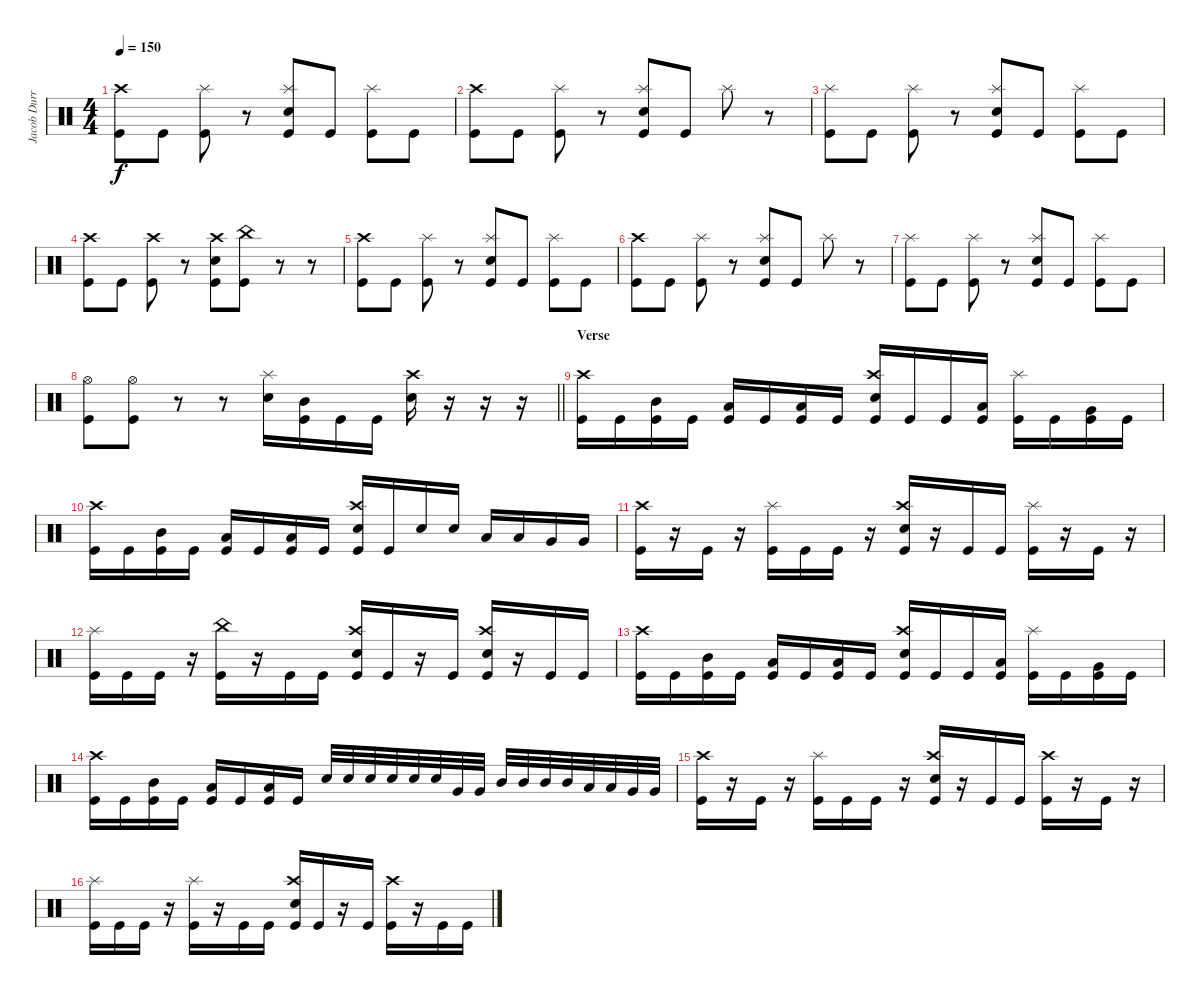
\track ("Jacob Durret" "Jacob Durr") {instrument percussion}
\staff {score}
\articulation defaults
\ts (4 4)
\tempo 150
\clef neutral
\ks c
("Kick (hit)" "Crash high (hit)").8{dy f} "Kick (hit)".8 ("Kick (hit)" "Splash (hit)").8 r.8 ("Kick (hit)" "Splash (hit)" "Snare (hit) 2").8 "Kick (hit)".8 ("Kick (hit)" "Splash (hit)").8 "Kick (hit)".8 |
("Kick (hit)" "Crash high (hit)").8 "Kick (hit)".8 ("Kick (hit)" "Splash (hit)").8 r.8 ("Kick (hit)" "Splash (hit)" "Snare (hit) 2").8 "Kick (hit)".8 "Splash (hit)".8 r.8 |
("Kick (hit)" "Splash (hit)").8 "Kick (hit)".8 ("Kick (hit)" "Splash (hit)").8 r.8 ("Kick (hit)" "Splash (hit)" "Snare (hit) 2").8 "Kick (hit)".8 ("Kick (hit)" "Splash (hit)").8 "Kick (hit)".8 |
("Kick (hit)" "Crash high (hit)").8 "Kick (hit)".8 ("Kick (hit)" "Crash high (hit)").8 r.8 ("Kick (hit)" "Crash high (hit)" "Snare (hit) 2").8 ("Kick (hit)" "China (hit)").8 r.8 r.8 |
("Kick (hit)" "Crash high (hit)").8 "Kick (hit)".8 ("Kick (hit)" "Splash (hit)").8 r.8 ("Kick (hit)" "Splash (hit)" "Snare (hit) 2").8 "Kick (hit)".8 ("Kick (hit)" "Splash (hit)").8 "Kick (hit)".8 |
("Kick (hit)" "Crash high (hit)").8 "Kick (hit)".8 ("Kick (hit)" "Splash (hit)").8 r.8 ("Kick (hit)" "Splash (hit)" "Snare (hit) 2").8 "Kick (hit)".8 "Splash (hit)".8 r.8 |
("Kick (hit)" "Splash (hit)").8 "Kick (hit)".8 ("Kick (hit)" "Splash (hit)").8 r.8 ("Kick (hit)" "Splash (hit)" "Snare (hit) 2").8 "Kick (hit)".8 ("Kick (hit)" "Splash (hit)").8 "Kick (hit)".8 |
\barLineRight lightlight
("Kick (hit)" "Hi-Hat (open)").8 ("Kick (hit)" "Hi-Hat (open)").8 r.8 r.8 ("Splash (hit)" "Snare (hit) 2").16 ("Kick (hit)" "Mid Tom (hit)").16 "Kick (hit)".16 "Kick (hit)".16 ("Snare (hit) 2" "Crash high (hit)").16 r.16 r.16 r.16 |
\section ("" "Verse")
("Kick (hit)" "Crash high (hit)").16 "Kick (hit)".16 ("Kick (hit)" "Mid Tom (hit)").16 "Kick (hit)".16 ("Kick (hit)" "Low Tom (hit)").16 "Kick (hit)".16 ("Kick (hit)" "Low Tom (hit)").16 "Kick (hit)".16 ("Kick (hit)" "Crash high (hit)" "Snare (hit) 2").16 "Kick (hit)".16 "Kick (hit)".16 ("Kick (hit)" "Low Tom (hit)").16 ("Kick (hit)" "Splash (hit)").16 "Kick (hit)".16 ("Kick (hit)" "Very Low Tom (hit)").16 "Kick (hit)".16 |
("Kick (hit)" "Crash high (hit)").16 "Kick (hit)".16 ("Kick (hit)" "Mid Tom (hit)").16 "Kick (hit)".16 ("Kick (hit)" "Low Tom (hit)").16 "Kick (hit)".16 ("Kick (hit)" "Low Tom (hit)").16 "Kick (hit)".16 ("Kick (hit)" "Crash high (hit)" "Snare (hit) 2").16 "Kick (hit)".16 "Snare (hit) 2".16 "Snare (hit) 2".16 "Low Tom (hit)".16 "Low Tom (hit)".16 "Very Low Tom (hit)".16 "Very Low Tom (hit)".16 |
("Kick (hit)" "Crash high (hit)").16 r.16 "Kick (hit)".16 r.16 ("Kick (hit)" "Splash (hit)").16 "Kick (hit)".16 "Kick (hit)".16 r.16 ("Kick (hit)" "Crash high (hit)" "Snare (hit) 2").16 r.16 "Kick (hit)".16 "Kick (hit)".16 ("Kick (hit)" "Splash (hit)").16 r.16 "Kick (hit)".16 r.16 |
("Kick (hit)" "Splash (hit)").16 "Kick (hit)".16 "Kick (hit)".16 r.16 ("Kick (hit)" "China (hit)").16 r.16 "Kick (hit)".16 "Kick (hit)".16 ("Kick (hit)" "Crash high (hit)" "Snare (hit) 2").16 "Kick (hit)".16 r.16 "Kick (hit)".16 ("Crash high (hit)" "Kick (hit)" "Snare (hit) 2").16 r.16 "Kick (hit)".16 "Kick (hit)".16 |
("Kick (hit)" "Crash high (hit)").16 "Kick (hit)".16 ("Kick (hit)" "Mid Tom (hit)").16 "Kick (hit)".16 ("Kick (hit)" "Low Tom (hit)").16 "Kick (hit)".16 ("Kick (hit)" "Low Tom (hit)").16 "Kick (hit)".16 ("Kick (hit)" "Crash high (hit)" "Snare (hit) 2").16 "Kick (hit)".16 "Kick (hit)".16 ("Kick (hit)" "Low Tom (hit)").16 ("Kick (hit)" "Splash (hit)").16 "Kick (hit)".16 ("Kick (hit)" "Very Low Tom (hit)").16 "Kick (hit)".16 |
("Kick (hit)" "Crash high (hit)").16 "Kick (hit)".16 ("Kick (hit)" "Mid Tom (hit)").16 "Kick (hit)".16 ("Kick (hit)" "Low Tom (hit)").16 "Kick (hit)".16 ("Kick (hit)" "Low Tom (hit)").16 "Kick (hit)".16 "Snare (hit) 2".32 "Snare (hit) 2".32 "Snare (hit) 2".32 "Snare (hit) 2".32 "Snare (hit) 2".32 "Snare (hit) 2".32 "Very Low Tom (hit)".32 "Very Low Tom (hit)".32 "Mid Tom (hit)".32 "Mid Tom (hit)".32 "Mid Tom (hit)".32 "Mid Tom (hit)".32 "Low Tom (hit)".32 "Low Tom (hit)".32 "Very Low Tom (hit)".32 "Very Low Tom (hit)".32 |
("Kick (hit)" "Crash high (hit)").16 r.16 "Kick (hit)".16 r.16 ("Kick (hit)" "Splash (hit)").16 "Kick (hit)".16 "Kick (hit)".16 r.16 ("Kick (hit)" "Crash high (hit)" "Snare (hit) 2").16 r.16 "Kick (hit)".16 "Kick (hit)".16 ("Kick (hit)" "Crash high (hit)").16 r.16 "Kick (hit)".16 r.16 |
("Kick (hit)" "Splash (hit)").16 "Kick (hit)".16 "Kick (hit)".16 r.16 ("Kick (hit)" "Splash (hit)").16 r.16 "Kick (hit)".16 "Kick (hit)".16 ("Kick (hit)" "Crash high (hit)" "Snare (hit) 2").16 "Kick (hit)".16 r.16 "Kick (hit)".16 ("Crash high (hit)" "Kick (hit)").16 r.16 "Kick (hit)".16 "Kick (hit)".16
